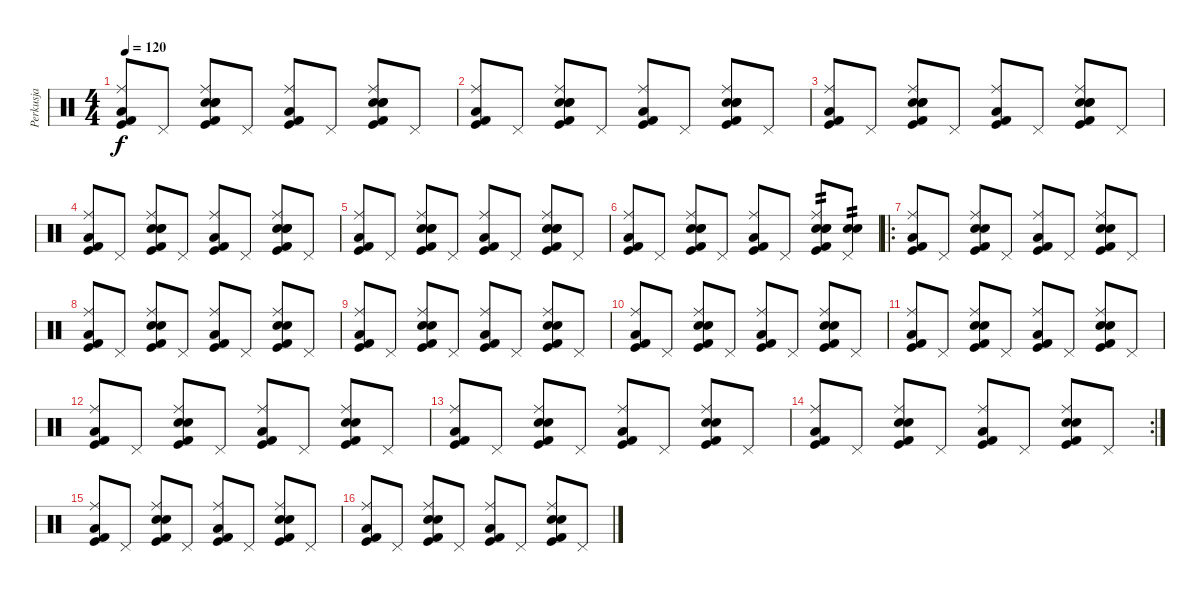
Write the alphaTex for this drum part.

\track ("Perkusja" "Perkusja") {instrument percussion}
\staff {score}
\articulation defaults
\ts (4 4)
\tempo 120
\clef neutral
\ks c
("Kick (hit) 2" "Kick (hit)" "Low Floor Tom (hit)" "Ride (middle)").8{dy f} "Pedal Hi-Hat (hit)".8 ("Kick (hit) 2" "Kick (hit)" "Snare (hit) 2" "Electric Snare (hit)" "Hand Clap (hit)" "Ride (middle)").8 "Pedal Hi-Hat (hit)".8 ("Kick (hit) 2" "Kick (hit)" "Low Floor Tom (hit)" "Ride (middle)").8 "Pedal Hi-Hat (hit)".8 ("Kick (hit) 2" "Kick (hit)" "Snare (hit) 2" "Electric Snare (hit)" "Hand Clap (hit)" "Ride (middle)").8 "Pedal Hi-Hat (hit)".8 |
("Kick (hit) 2" "Kick (hit)" "Low Floor Tom (hit)" "Ride (middle)").8 "Pedal Hi-Hat (hit)".8 ("Kick (hit) 2" "Kick (hit)" "Snare (hit) 2" "Electric Snare (hit)" "Hand Clap (hit)" "Ride (middle)").8 "Pedal Hi-Hat (hit)".8 ("Kick (hit) 2" "Kick (hit)" "Low Floor Tom (hit)" "Ride (middle)").8 "Pedal Hi-Hat (hit)".8 ("Kick (hit) 2" "Kick (hit)" "Snare (hit) 2" "Electric Snare (hit)" "Hand Clap (hit)" "Ride (middle)").8 "Pedal Hi-Hat (hit)".8 |
("Kick (hit) 2" "Kick (hit)" "Low Floor Tom (hit)" "Ride (middle)").8 "Pedal Hi-Hat (hit)".8 ("Kick (hit) 2" "Kick (hit)" "Snare (hit) 2" "Electric Snare (hit)" "Hand Clap (hit)" "Ride (middle)").8 "Pedal Hi-Hat (hit)".8 ("Kick (hit) 2" "Kick (hit)" "Low Floor Tom (hit)" "Ride (middle)").8 "Pedal Hi-Hat (hit)".8 ("Kick (hit) 2" "Kick (hit)" "Snare (hit) 2" "Electric Snare (hit)" "Hand Clap (hit)" "Ride (middle)").8 "Pedal Hi-Hat (hit)".8 |
("Kick (hit) 2" "Kick (hit)" "Low Floor Tom (hit)" "Ride (middle)").8 "Pedal Hi-Hat (hit)".8 ("Kick (hit) 2" "Kick (hit)" "Snare (hit) 2" "Electric Snare (hit)" "Hand Clap (hit)" "Ride (middle)").8 "Pedal Hi-Hat (hit)".8 ("Kick (hit) 2" "Kick (hit)" "Low Floor Tom (hit)" "Ride (middle)").8 "Pedal Hi-Hat (hit)".8 ("Kick (hit) 2" "Kick (hit)" "Snare (hit) 2" "Electric Snare (hit)" "Hand Clap (hit)" "Ride (middle)").8 "Pedal Hi-Hat (hit)".8 |
("Kick (hit) 2" "Kick (hit)" "Low Floor Tom (hit)" "Ride (middle)").8 "Pedal Hi-Hat (hit)".8 ("Kick (hit) 2" "Kick (hit)" "Snare (hit) 2" "Electric Snare (hit)" "Hand Clap (hit)" "Ride (middle)").8 "Pedal Hi-Hat (hit)".8 ("Kick (hit) 2" "Kick (hit)" "Low Floor Tom (hit)" "Ride (middle)").8 "Pedal Hi-Hat (hit)".8 ("Kick (hit) 2" "Kick (hit)" "Snare (hit) 2" "Electric Snare (hit)" "Hand Clap (hit)" "Ride (middle)").8 "Pedal Hi-Hat (hit)".8 |
("Kick (hit) 2" "Kick (hit)" "Low Floor Tom (hit)" "Ride (middle)").8 "Pedal Hi-Hat (hit)".8 ("Kick (hit) 2" "Kick (hit)" "Snare (hit) 2" "Electric Snare (hit)" "Hand Clap (hit)" "Ride (middle)").8 "Pedal Hi-Hat (hit)".8 ("Kick (hit) 2" "Kick (hit)" "Low Floor Tom (hit)" "Ride (middle)").8 "Pedal Hi-Hat (hit)".8 ("Kick (hit) 2" "Kick (hit)" "Snare (hit) 2" "Electric Snare (hit)" "Hand Clap (hit)" "Ride (middle)").8{tp 2} ("Pedal Hi-Hat (hit)" "Snare (hit) 2" "Electric Snare (hit)").8{tp 2} |
\ro
("Kick (hit) 2" "Kick (hit)" "Low Floor Tom (hit)" "Ride (middle)").8 "Pedal Hi-Hat (hit)".8 ("Kick (hit) 2" "Kick (hit)" "Snare (hit) 2" "Electric Snare (hit)" "Ride (middle)").8 "Pedal Hi-Hat (hit)".8 ("Kick (hit) 2" "Kick (hit)" "Low Floor Tom (hit)" "Ride (middle)").8 "Pedal Hi-Hat (hit)".8 ("Kick (hit) 2" "Kick (hit)" "Snare (hit) 2" "Electric Snare (hit)" "Ride (middle)").8 "Pedal Hi-Hat (hit)".8 |
("Kick (hit) 2" "Kick (hit)" "Low Floor Tom (hit)" "Ride (middle)").8 "Pedal Hi-Hat (hit)".8 ("Kick (hit) 2" "Kick (hit)" "Snare (hit) 2" "Electric Snare (hit)" "Ride (middle)").8 "Pedal Hi-Hat (hit)".8 ("Kick (hit) 2" "Kick (hit)" "Low Floor Tom (hit)" "Ride (middle)").8 "Pedal Hi-Hat (hit)".8 ("Kick (hit) 2" "Kick (hit)" "Snare (hit) 2" "Electric Snare (hit)" "Ride (middle)").8 "Pedal Hi-Hat (hit)".8 |
("Kick (hit) 2" "Kick (hit)" "Low Floor Tom (hit)" "Ride (middle)").8 "Pedal Hi-Hat (hit)".8 ("Kick (hit) 2" "Kick (hit)" "Snare (hit) 2" "Electric Snare (hit)" "Ride (middle)").8 "Pedal Hi-Hat (hit)".8 ("Kick (hit) 2" "Kick (hit)" "Low Floor Tom (hit)" "Ride (middle)").8 "Pedal Hi-Hat (hit)".8 ("Kick (hit) 2" "Kick (hit)" "Snare (hit) 2" "Electric Snare (hit)" "Ride (middle)").8 "Pedal Hi-Hat (hit)".8 |
("Kick (hit) 2" "Kick (hit)" "Low Floor Tom (hit)" "Ride (middle)").8 "Pedal Hi-Hat (hit)".8 ("Kick (hit) 2" "Kick (hit)" "Snare (hit) 2" "Electric Snare (hit)" "Ride (middle)").8 "Pedal Hi-Hat (hit)".8 ("Kick (hit) 2" "Kick (hit)" "Low Floor Tom (hit)" "Ride (middle)").8 "Pedal Hi-Hat (hit)".8 ("Kick (hit) 2" "Kick (hit)" "Snare (hit) 2" "Electric Snare (hit)" "Ride (middle)").8 "Pedal Hi-Hat (hit)".8 |
("Kick (hit) 2" "Kick (hit)" "Low Floor Tom (hit)" "Ride (middle)").8 "Pedal Hi-Hat (hit)".8 ("Kick (hit) 2" "Kick (hit)" "Snare (hit) 2" "Electric Snare (hit)" "Ride (middle)").8 "Pedal Hi-Hat (hit)".8 ("Kick (hit) 2" "Kick (hit)" "Low Floor Tom (hit)" "Ride (middle)").8 "Pedal Hi-Hat (hit)".8 ("Kick (hit) 2" "Kick (hit)" "Snare (hit) 2" "Electric Snare (hit)" "Ride (middle)").8 "Pedal Hi-Hat (hit)".8 |
("Kick (hit) 2" "Kick (hit)" "Low Floor Tom (hit)" "Ride (middle)").8 "Pedal Hi-Hat (hit)".8 ("Kick (hit) 2" "Kick (hit)" "Snare (hit) 2" "Electric Snare (hit)" "Ride (middle)").8 "Pedal Hi-Hat (hit)".8 ("Kick (hit) 2" "Kick (hit)" "Low Floor Tom (hit)" "Ride (middle)").8 "Pedal Hi-Hat (hit)".8 ("Kick (hit) 2" "Kick (hit)" "Snare (hit) 2" "Electric Snare (hit)" "Ride (middle)").8 "Pedal Hi-Hat (hit)".8 |
("Kick (hit) 2" "Kick (hit)" "Low Floor Tom (hit)" "Ride (middle)").8 "Pedal Hi-Hat (hit)".8 ("Kick (hit) 2" "Kick (hit)" "Snare (hit) 2" "Electric Snare (hit)" "Ride (middle)").8 "Pedal Hi-Hat (hit)".8 ("Kick (hit) 2" "Kick (hit)" "Low Floor Tom (hit)" "Ride (middle)").8 "Pedal Hi-Hat (hit)".8 ("Kick (hit) 2" "Kick (hit)" "Snare (hit) 2" "Electric Snare (hit)" "Ride (middle)").8 "Pedal Hi-Hat (hit)".8 |
\rc 2
("Kick (hit) 2" "Kick (hit)" "Low Floor Tom (hit)" "Ride (middle)").8 "Pedal Hi-Hat (hit)".8 ("Kick (hit) 2" "Kick (hit)" "Snare (hit) 2" "Electric Snare (hit)" "Ride (middle)").8 "Pedal Hi-Hat (hit)".8 ("Kick (hit) 2" "Kick (hit)" "Low Floor Tom (hit)" "Ride (middle)").8 "Pedal Hi-Hat (hit)".8 ("Kick (hit) 2" "Kick (hit)" "Snare (hit) 2" "Electric Snare (hit)" "Ride (middle)").8 "Pedal Hi-Hat (hit)".8 |
("Kick (hit) 2" "Kick (hit)" "Low Floor Tom (hit)" "Ride (middle)").8 "Pedal Hi-Hat (hit)".8 ("Kick (hit) 2" "Kick (hit)" "Snare (hit) 2" "Electric Snare (hit)" "Ride (middle)").8 "Pedal Hi-Hat (hit)".8 ("Kick (hit) 2" "Kick (hit)" "Low Floor Tom (hit)" "Ride (middle)").8{volume 14} "Pedal Hi-Hat (hit)".8 ("Kick (hit) 2" "Kick (hit)" "Snare (hit) 2" "Electric Snare (hit)" "Ride (middle)").8 "Pedal Hi-Hat (hit)".8 |
("Kick (hit) 2" "Kick (hit)" "Low Floor Tom (hit)" "Ride (middle)").8{volume 12} "Pedal Hi-Hat (hit)".8 ("Kick (hit) 2" "Kick (hit)" "Snare (hit) 2" "Electric Snare (hit)" "Ride (middle)").8 "Pedal Hi-Hat (hit)".8 ("Kick (hit) 2" "Kick (hit)" "Low Floor Tom (hit)" "Ride (middle)").8{volume 10} "Pedal Hi-Hat (hit)".8 ("Kick (hit) 2" "Kick (hit)" "Snare (hit) 2" "Electric Snare (hit)" "Ride (middle)").8 "Pedal Hi-Hat (hit)".8
